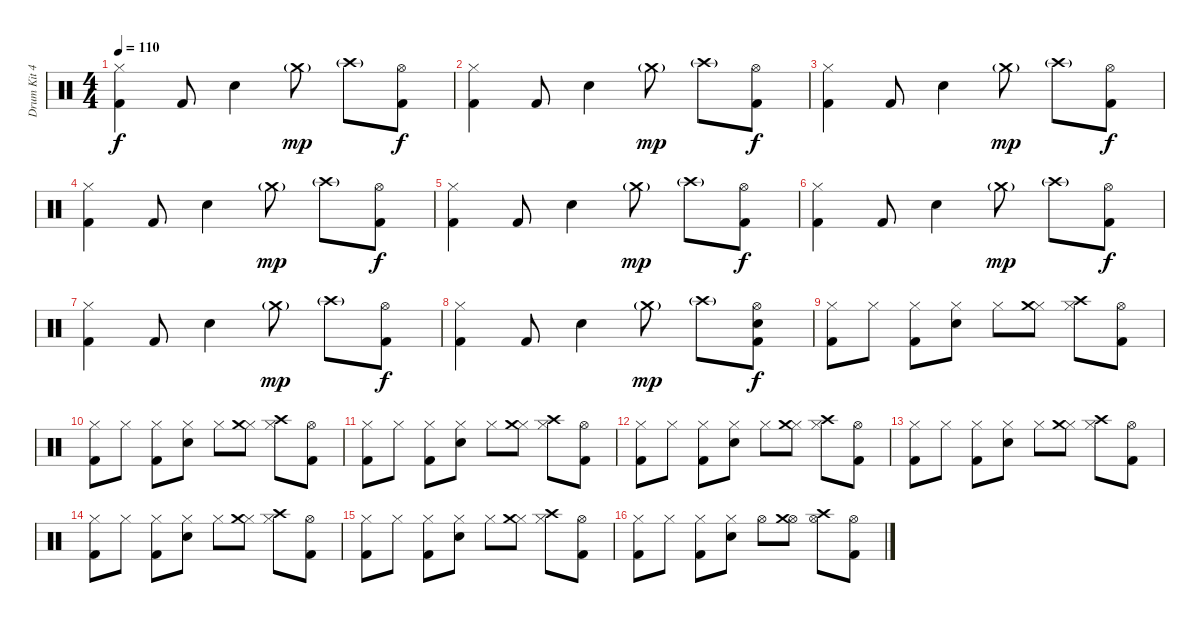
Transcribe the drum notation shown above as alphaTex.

\track ("Drum Kit 42" "Drum Kit 4") {instrument percussion}
\staff {score}
\articulation defaults
\ts (4 4)
\tempo 110
\clef neutral
\ks c
("Hi-Hat (closed)" "Kick (hit) 2").4{dy f} "Kick (hit) 2".8 "Snare (hit) 2".4 "Crash medium (hit)"{g}.8{dy mp} "Crash high (hit)"{g}.8 ("Hi-Hat (open)" "Kick (hit) 2").8{dy f} |
("Hi-Hat (closed)" "Kick (hit) 2").4 "Kick (hit) 2".8 "Snare (hit) 2".4 "Crash medium (hit)"{g}.8{dy mp} "Crash high (hit)"{g}.8 ("Hi-Hat (open)" "Kick (hit) 2").8{dy f} |
("Hi-Hat (closed)" "Kick (hit) 2").4 "Kick (hit) 2".8 "Snare (hit) 2".4 "Crash medium (hit)"{g}.8{dy mp} "Crash high (hit)"{g}.8 ("Hi-Hat (open)" "Kick (hit) 2").8{dy f} |
("Hi-Hat (closed)" "Kick (hit) 2").4 "Kick (hit) 2".8 "Snare (hit) 2".4 "Crash medium (hit)"{g}.8{dy mp} "Crash high (hit)"{g}.8 ("Hi-Hat (open)" "Kick (hit) 2").8{dy f} |
("Hi-Hat (closed)" "Kick (hit) 2").4 "Kick (hit) 2".8 "Snare (hit) 2".4 "Crash medium (hit)"{g}.8{dy mp} "Crash high (hit)"{g}.8 ("Hi-Hat (open)" "Kick (hit) 2").8{dy f} |
("Hi-Hat (closed)" "Kick (hit) 2").4 "Kick (hit) 2".8 "Snare (hit) 2".4 "Crash medium (hit)"{g}.8{dy mp} "Crash high (hit)"{g}.8 ("Hi-Hat (open)" "Kick (hit) 2").8{dy f} |
("Hi-Hat (closed)" "Kick (hit) 2").4 "Kick (hit) 2".8 "Snare (hit) 2".4 "Crash medium (hit)"{g}.8{dy mp} "Crash high (hit)"{g}.8 ("Hi-Hat (open)" "Kick (hit) 2").8{dy f} |
("Hi-Hat (closed)" "Kick (hit) 2").4 "Kick (hit) 2".8 "Snare (hit) 2".4 "Crash medium (hit)"{g}.8{dy mp} "Crash high (hit)"{g}.8 ("Hi-Hat (open)" "Snare (hit) 2" "Kick (hit) 2").8{dy f} |
("Hi-Hat (closed)" "Kick (hit) 2").8 "Hi-Hat (closed)".8 ("Hi-Hat (closed)" "Kick (hit) 2").8 ("Hi-Hat (closed)" "Snare (hit) 2").8 "Hi-Hat (closed)".8 ("Hi-Hat (closed)" "Crash medium (hit)").8 ("Hi-Hat (closed)" "Crash high (hit)").8 ("Hi-Hat (open)" "Kick (hit) 2").8 |
("Hi-Hat (closed)" "Kick (hit) 2").8 "Hi-Hat (closed)".8 ("Hi-Hat (closed)" "Kick (hit) 2").8 ("Hi-Hat (closed)" "Snare (hit) 2").8 "Hi-Hat (closed)".8 ("Hi-Hat (closed)" "Crash medium (hit)").8 ("Hi-Hat (closed)" "Crash high (hit)").8 ("Hi-Hat (open)" "Kick (hit) 2").8 |
("Hi-Hat (closed)" "Kick (hit) 2").8 "Hi-Hat (closed)".8 ("Hi-Hat (closed)" "Kick (hit) 2").8 ("Hi-Hat (closed)" "Snare (hit) 2").8 "Hi-Hat (closed)".8 ("Hi-Hat (closed)" "Crash medium (hit)").8 ("Hi-Hat (closed)" "Crash high (hit)").8 ("Hi-Hat (open)" "Kick (hit) 2").8 |
("Hi-Hat (closed)" "Kick (hit) 2").8 "Hi-Hat (closed)".8 ("Hi-Hat (closed)" "Kick (hit) 2").8 ("Hi-Hat (closed)" "Snare (hit) 2").8 "Hi-Hat (closed)".8 ("Hi-Hat (closed)" "Crash medium (hit)").8 ("Hi-Hat (closed)" "Crash high (hit)").8 ("Hi-Hat (open)" "Kick (hit) 2").8 |
("Hi-Hat (closed)" "Kick (hit) 2").8 "Hi-Hat (closed)".8 ("Hi-Hat (closed)" "Kick (hit) 2").8 ("Hi-Hat (closed)" "Snare (hit) 2").8 "Hi-Hat (closed)".8 ("Hi-Hat (closed)" "Crash medium (hit)").8 ("Hi-Hat (closed)" "Crash high (hit)").8 ("Hi-Hat (open)" "Kick (hit) 2").8 |
("Hi-Hat (closed)" "Kick (hit) 2").8 "Hi-Hat (closed)".8 ("Hi-Hat (closed)" "Kick (hit) 2").8 ("Hi-Hat (closed)" "Snare (hit) 2").8 "Hi-Hat (closed)".8 ("Hi-Hat (closed)" "Crash medium (hit)").8 ("Hi-Hat (closed)" "Crash high (hit)").8 ("Hi-Hat (open)" "Kick (hit) 2").8 |
("Hi-Hat (closed)" "Kick (hit) 2").8 "Hi-Hat (closed)".8 ("Hi-Hat (closed)" "Kick (hit) 2").8 ("Hi-Hat (closed)" "Snare (hit) 2").8 "Hi-Hat (closed)".8 ("Hi-Hat (closed)" "Crash medium (hit)").8 ("Hi-Hat (closed)" "Crash high (hit)").8 ("Hi-Hat (open)" "Kick (hit) 2").8 |
("Hi-Hat (closed)" "Kick (hit) 2").8 "Hi-Hat (closed)".8 ("Hi-Hat (closed)" "Kick (hit) 2").8 ("Hi-Hat (closed)" "Snare (hit) 2").8 "Hi-Hat (open)".8 ("Hi-Hat (open)" "Crash medium (hit)").8 ("Hi-Hat (open)" "Crash high (hit)").8 ("Hi-Hat (open)" "Kick (hit) 2").8
